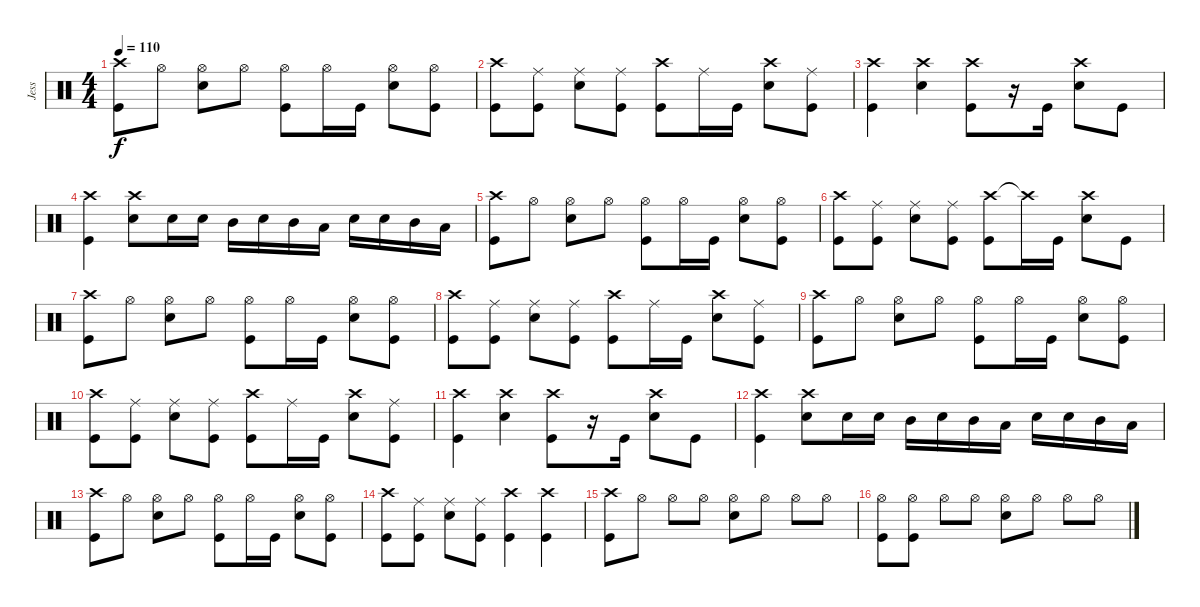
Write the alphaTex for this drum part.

\track ("Jess" "Jess") {instrument percussion}
\staff {score}
\articulation defaults
\ts (4 4)
\tempo 110
\clef neutral
\ks c
("Crash high (hit)" "Kick (hit)").8{dy f} "Hi-Hat (open)".8 ("Hi-Hat (open)" "Electric Snare (hit)").8 "Hi-Hat (open)".8 ("Hi-Hat (open)" "Kick (hit)").8 "Hi-Hat (open)".16 "Kick (hit)".16 ("Hi-Hat (open)" "Electric Snare (hit)").8 ("Hi-Hat (open)" "Kick (hit)").8 |
("Crash high (hit)" "Kick (hit)").8 ("Ride (middle)" "Kick (hit)").8 ("Ride (middle)" "Electric Snare (hit)").8 ("Ride (middle)" "Kick (hit)").8 ("Crash high (hit)" "Kick (hit)").8 "Ride (middle)".16 "Kick (hit)".16 ("Crash high (hit)" "Electric Snare (hit)").8 ("Ride (middle)" "Kick (hit)").8 |
("Crash high (hit)" "Kick (hit)").4 ("Crash high (hit)" "Electric Snare (hit)").4 ("Crash high (hit)" "Kick (hit)").8 r.16 "Kick (hit)".16 ("Crash high (hit)" "Electric Snare (hit)").8 "Kick (hit)".8 |
("Crash high (hit)" "Kick (hit)").4 ("Crash high (hit)" "Electric Snare (hit)").8 "Electric Snare (hit)".16 "Electric Snare (hit)".16 "Mid Tom (hit)".16 "Electric Snare (hit)".16 "Mid Tom (hit)".16 "Low Tom (hit)".16 "Electric Snare (hit)".16 "Electric Snare (hit)".16 "Mid Tom (hit)".16 "Low Tom (hit)".16 |
("Crash high (hit)" "Kick (hit)").8 "Hi-Hat (open)".8 ("Hi-Hat (open)" "Electric Snare (hit)").8 "Hi-Hat (open)".8 ("Hi-Hat (open)" "Kick (hit)").8 "Hi-Hat (open)".16 "Kick (hit)".16 ("Hi-Hat (open)" "Electric Snare (hit)").8 ("Hi-Hat (open)" "Kick (hit)").8 |
("Crash high (hit)" "Kick (hit)").8 ("Ride (middle)" "Kick (hit)").8 ("Ride (middle)" "Electric Snare (hit)").8 ("Ride (middle)" "Kick (hit)").8 ("Crash high (hit)" "Kick (hit)").8 "Crash high (hit)"{t}.16 "Kick (hit)".16 ("Crash high (hit)" "Electric Snare (hit)").8 "Kick (hit)".8 |
("Crash high (hit)" "Kick (hit)").8 "Hi-Hat (open)".8 ("Hi-Hat (open)" "Electric Snare (hit)").8 "Hi-Hat (open)".8 ("Hi-Hat (open)" "Kick (hit)").8 "Hi-Hat (open)".16 "Kick (hit)".16 ("Hi-Hat (open)" "Electric Snare (hit)").8 ("Hi-Hat (open)" "Kick (hit)").8 |
("Crash high (hit)" "Kick (hit)").8 ("Ride (middle)" "Kick (hit)").8 ("Ride (middle)" "Electric Snare (hit)").8 ("Ride (middle)" "Kick (hit)").8 ("Crash high (hit)" "Kick (hit)").8 "Ride (middle)".16 "Kick (hit)".16 ("Crash high (hit)" "Electric Snare (hit)").8 ("Ride (middle)" "Kick (hit)").8 |
("Crash high (hit)" "Kick (hit)").8 "Hi-Hat (open)".8 ("Hi-Hat (open)" "Electric Snare (hit)").8 "Hi-Hat (open)".8 ("Hi-Hat (open)" "Kick (hit)").8 "Hi-Hat (open)".16 "Kick (hit)".16 ("Hi-Hat (open)" "Electric Snare (hit)").8 ("Hi-Hat (open)" "Kick (hit)").8 |
("Crash high (hit)" "Kick (hit)").8 ("Ride (middle)" "Kick (hit)").8 ("Ride (middle)" "Electric Snare (hit)").8 ("Ride (middle)" "Kick (hit)").8 ("Crash high (hit)" "Kick (hit)").8 "Ride (middle)".16 "Kick (hit)".16 ("Crash high (hit)" "Electric Snare (hit)").8 ("Ride (middle)" "Kick (hit)").8 |
("Crash high (hit)" "Kick (hit)").4 ("Crash high (hit)" "Electric Snare (hit)").4 ("Crash high (hit)" "Kick (hit)").8 r.16 "Kick (hit)".16 ("Crash high (hit)" "Electric Snare (hit)").8 "Kick (hit)".8 |
("Crash high (hit)" "Kick (hit)").4 ("Crash high (hit)" "Electric Snare (hit)").8 "Electric Snare (hit)".16 "Electric Snare (hit)".16 "Mid Tom (hit)".16 "Electric Snare (hit)".16 "Mid Tom (hit)".16 "Low Tom (hit)".16 "Electric Snare (hit)".16 "Electric Snare (hit)".16 "Mid Tom (hit)".16 "Low Tom (hit)".16 |
("Crash high (hit)" "Kick (hit)").8 "Hi-Hat (open)".8 ("Hi-Hat (open)" "Electric Snare (hit)").8 "Hi-Hat (open)".8 ("Hi-Hat (open)" "Kick (hit)").8 "Hi-Hat (open)".16 "Kick (hit)".16 ("Hi-Hat (open)" "Electric Snare (hit)").8 ("Hi-Hat (open)" "Kick (hit)").8 |
("Crash high (hit)" "Kick (hit)").8 ("Ride (middle)" "Kick (hit)").8 ("Ride (middle)" "Electric Snare (hit)").8 ("Ride (middle)" "Kick (hit)").8 ("Crash high (hit)" "Kick (hit)").4 ("Crash high (hit)" "Kick (hit)").4 |
("Crash high (hit)" "Kick (hit)").8 "Hi-Hat (open)".8 "Hi-Hat (open)".8 "Hi-Hat (open)".8 ("Hi-Hat (open)" "Electric Snare (hit)").8 "Hi-Hat (open)".8 "Hi-Hat (open)".8 "Hi-Hat (open)".8 |
("Hi-Hat (open)" "Kick (hit)").8 ("Hi-Hat (open)" "Kick (hit)").8 "Hi-Hat (open)".8 "Hi-Hat (open)".8 ("Hi-Hat (open)" "Electric Snare (hit)").8 "Hi-Hat (open)".8 "Hi-Hat (open)".8 "Hi-Hat (open)".8
